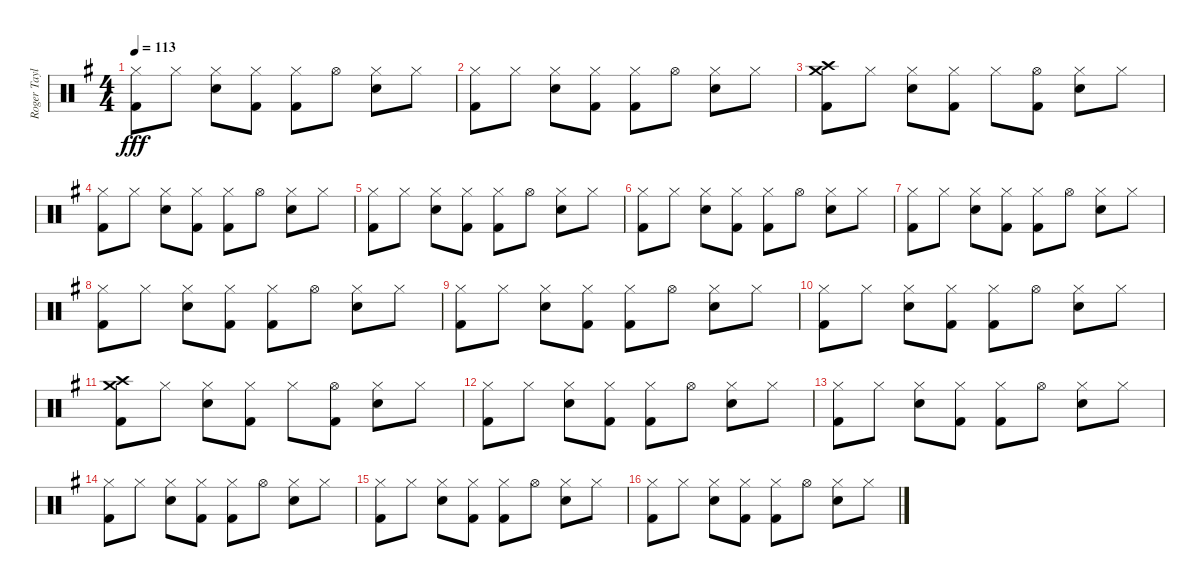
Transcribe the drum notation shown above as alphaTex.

\track ("Roger Taylor" "Roger Tayl") {instrument percussion}
\staff {score}
\articulation defaults
\ts (4 4)
\tempo 113
\clef neutral
\ks g
("Hi-Hat (closed)" "Kick (hit) 2").8{dy fff} "Hi-Hat (closed)".8 ("Hi-Hat (closed)" "Snare (hit) 2").8 ("Hi-Hat (closed)" "Kick (hit) 2").8 ("Hi-Hat (closed)" "Kick (hit) 2").8 "Hi-Hat (open)".8 ("Hi-Hat (closed)" "Snare (hit) 2").8 "Hi-Hat (closed)".8 |
("Hi-Hat (closed)" "Kick (hit) 2").8 "Hi-Hat (closed)".8 ("Hi-Hat (closed)" "Snare (hit) 2").8 ("Hi-Hat (closed)" "Kick (hit) 2").8 ("Hi-Hat (closed)" "Kick (hit) 2").8 "Hi-Hat (open)".8 ("Hi-Hat (closed)" "Snare (hit) 2").8 "Hi-Hat (closed)".8 |
("Crash high (hit)" "Crash medium (hit)" "Kick (hit) 2").8 "Hi-Hat (closed)".8 ("Hi-Hat (closed)" "Snare (hit) 2").8 ("Hi-Hat (closed)" "Kick (hit) 2").8 "Hi-Hat (closed)".8 ("Hi-Hat (open)" "Kick (hit) 2").8 ("Hi-Hat (closed)" "Snare (hit) 2").8 "Hi-Hat (closed)".8 |
("Hi-Hat (closed)" "Kick (hit) 2").8 "Hi-Hat (closed)".8 ("Hi-Hat (closed)" "Snare (hit) 2").8 ("Hi-Hat (closed)" "Kick (hit) 2").8 ("Hi-Hat (closed)" "Kick (hit) 2").8 "Hi-Hat (open)".8 ("Hi-Hat (closed)" "Snare (hit) 2").8 "Hi-Hat (closed)".8 |
("Hi-Hat (closed)" "Kick (hit) 2").8 "Hi-Hat (closed)".8 ("Hi-Hat (closed)" "Snare (hit) 2").8 ("Hi-Hat (closed)" "Kick (hit) 2").8 ("Hi-Hat (closed)" "Kick (hit) 2").8 "Hi-Hat (open)".8 ("Hi-Hat (closed)" "Snare (hit) 2").8 "Hi-Hat (closed)".8 |
("Hi-Hat (closed)" "Kick (hit) 2").8 "Hi-Hat (closed)".8 ("Hi-Hat (closed)" "Snare (hit) 2").8 ("Hi-Hat (closed)" "Kick (hit) 2").8 ("Hi-Hat (closed)" "Kick (hit) 2").8 "Hi-Hat (open)".8 ("Hi-Hat (closed)" "Snare (hit) 2").8 "Hi-Hat (closed)".8 |
("Hi-Hat (closed)" "Kick (hit) 2").8 "Hi-Hat (closed)".8 ("Hi-Hat (closed)" "Snare (hit) 2").8 ("Hi-Hat (closed)" "Kick (hit) 2").8 ("Hi-Hat (closed)" "Kick (hit) 2").8 "Hi-Hat (open)".8 ("Hi-Hat (closed)" "Snare (hit) 2").8 "Hi-Hat (closed)".8 |
("Hi-Hat (closed)" "Kick (hit) 2").8 "Hi-Hat (closed)".8 ("Hi-Hat (closed)" "Snare (hit) 2").8 ("Hi-Hat (closed)" "Kick (hit) 2").8 ("Hi-Hat (closed)" "Kick (hit) 2").8 "Hi-Hat (open)".8 ("Hi-Hat (closed)" "Snare (hit) 2").8 "Hi-Hat (closed)".8 |
("Hi-Hat (closed)" "Kick (hit) 2").8 "Hi-Hat (closed)".8 ("Hi-Hat (closed)" "Snare (hit) 2").8 ("Hi-Hat (closed)" "Kick (hit) 2").8 ("Hi-Hat (closed)" "Kick (hit) 2").8 "Hi-Hat (open)".8 ("Hi-Hat (closed)" "Snare (hit) 2").8 "Hi-Hat (closed)".8 |
("Hi-Hat (closed)" "Kick (hit) 2").8 "Hi-Hat (closed)".8 ("Hi-Hat (closed)" "Snare (hit) 2").8 ("Hi-Hat (closed)" "Kick (hit) 2").8 ("Hi-Hat (closed)" "Kick (hit) 2").8 "Hi-Hat (open)".8 ("Hi-Hat (closed)" "Snare (hit) 2").8 "Hi-Hat (closed)".8 |
("Crash high (hit)" "Crash medium (hit)" "Kick (hit) 2").8 "Hi-Hat (closed)".8 ("Hi-Hat (closed)" "Snare (hit) 2").8 ("Hi-Hat (closed)" "Kick (hit) 2").8 "Hi-Hat (closed)".8 ("Hi-Hat (open)" "Kick (hit) 2").8 ("Hi-Hat (closed)" "Snare (hit) 2").8 "Hi-Hat (closed)".8 |
("Hi-Hat (closed)" "Kick (hit) 2").8 "Hi-Hat (closed)".8 ("Hi-Hat (closed)" "Snare (hit) 2").8 ("Hi-Hat (closed)" "Kick (hit) 2").8 ("Hi-Hat (closed)" "Kick (hit) 2").8 "Hi-Hat (open)".8 ("Hi-Hat (closed)" "Snare (hit) 2").8 "Hi-Hat (closed)".8 |
("Hi-Hat (closed)" "Kick (hit) 2").8 "Hi-Hat (closed)".8 ("Hi-Hat (closed)" "Snare (hit) 2").8 ("Hi-Hat (closed)" "Kick (hit) 2").8 ("Hi-Hat (closed)" "Kick (hit) 2").8 "Hi-Hat (open)".8 ("Hi-Hat (closed)" "Snare (hit) 2").8 "Hi-Hat (closed)".8 |
("Hi-Hat (closed)" "Kick (hit) 2").8 "Hi-Hat (closed)".8 ("Hi-Hat (closed)" "Snare (hit) 2").8 ("Hi-Hat (closed)" "Kick (hit) 2").8 ("Hi-Hat (closed)" "Kick (hit) 2").8 "Hi-Hat (open)".8 ("Hi-Hat (closed)" "Snare (hit) 2").8 "Hi-Hat (closed)".8 |
("Hi-Hat (closed)" "Kick (hit) 2").8 "Hi-Hat (closed)".8 ("Hi-Hat (closed)" "Snare (hit) 2").8 ("Hi-Hat (closed)" "Kick (hit) 2").8 ("Hi-Hat (closed)" "Kick (hit) 2").8 "Hi-Hat (open)".8 ("Hi-Hat (closed)" "Snare (hit) 2").8 "Hi-Hat (closed)".8 |
("Hi-Hat (closed)" "Kick (hit) 2").8 "Hi-Hat (closed)".8 ("Hi-Hat (closed)" "Snare (hit) 2").8 ("Hi-Hat (closed)" "Kick (hit) 2").8 ("Hi-Hat (closed)" "Kick (hit) 2").8 "Hi-Hat (open)".8 ("Hi-Hat (closed)" "Snare (hit) 2").8 "Hi-Hat (closed)".8
